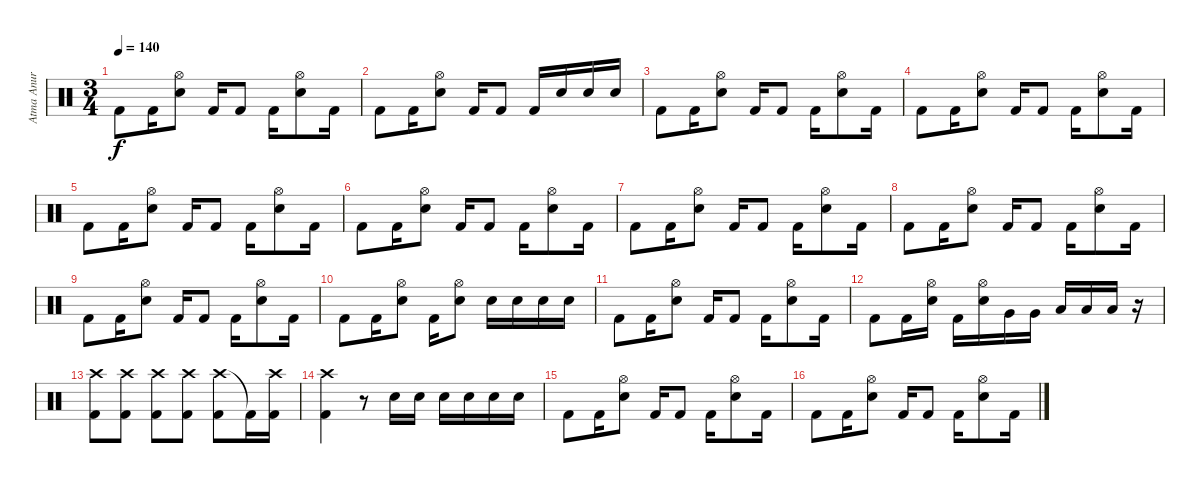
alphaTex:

\track ("Atma Anur" "Atma Anur") {instrument percussion}
\staff {score}
\articulation defaults
\ts (3 4)
\tempo 140
\clef neutral
\ks c "Kick (hit) 2".8{dy f} "Kick (hit) 2".16
("Hi-Hat (open)" "Snare (hit) 2").8 "Kick (hit) 2".16 "Kick (hit) 2".8 "Kick (hit) 2".16 ("Hi-Hat (open)" "Snare (hit) 2").8 "Kick (hit) 2".16 |
"Kick (hit) 2".8 "Kick (hit) 2".16 ("Hi-Hat (open)" "Snare (hit) 2").8 "Kick (hit) 2".16 "Kick (hit) 2".8 "Kick (hit) 2".16 "Snare (hit) 2".16 "Snare (hit) 2".16 "Snare (hit) 2".16 |
"Kick (hit) 2".8 "Kick (hit) 2".16 ("Hi-Hat (open)" "Snare (hit) 2").8 "Kick (hit) 2".16 "Kick (hit) 2".8 "Kick (hit) 2".16 ("Hi-Hat (open)" "Snare (hit) 2").8 "Kick (hit) 2".16 |
"Kick (hit) 2".8 "Kick (hit) 2".16 ("Hi-Hat (open)" "Snare (hit) 2").8 "Kick (hit) 2".16 "Kick (hit) 2".8 "Kick (hit) 2".16 ("Hi-Hat (open)" "Snare (hit) 2").8 "Kick (hit) 2".16 |
"Kick (hit) 2".8 "Kick (hit) 2".16 ("Hi-Hat (open)" "Snare (hit) 2").8 "Kick (hit) 2".16 "Kick (hit) 2".8 "Kick (hit) 2".16 ("Hi-Hat (open)" "Snare (hit) 2").8 "Kick (hit) 2".16 |
"Kick (hit) 2".8 "Kick (hit) 2".16 ("Hi-Hat (open)" "Snare (hit) 2").8 "Kick (hit) 2".16 "Kick (hit) 2".8 "Kick (hit) 2".16 ("Hi-Hat (open)" "Snare (hit) 2").8 "Kick (hit) 2".16 |
"Kick (hit) 2".8 "Kick (hit) 2".16 ("Hi-Hat (open)" "Snare (hit) 2").8 "Kick (hit) 2".16 "Kick (hit) 2".8 "Kick (hit) 2".16 ("Hi-Hat (open)" "Snare (hit) 2").8 "Kick (hit) 2".16 |
"Kick (hit) 2".8 "Kick (hit) 2".16 ("Hi-Hat (open)" "Snare (hit) 2").8 "Kick (hit) 2".16 "Kick (hit) 2".8 "Kick (hit) 2".16 ("Hi-Hat (open)" "Snare (hit) 2").8 "Kick (hit) 2".16 |
"Kick (hit) 2".8 "Kick (hit) 2".16 ("Hi-Hat (open)" "Snare (hit) 2").8 "Kick (hit) 2".16 "Kick (hit) 2".8 "Kick (hit) 2".16 ("Hi-Hat (open)" "Snare (hit) 2").8 "Kick (hit) 2".16 |
"Kick (hit) 2".8 "Kick (hit) 2".16 ("Hi-Hat (open)" "Snare (hit) 2").8 "Kick (hit) 2".16 ("Hi-Hat (open)" "Snare (hit) 2").8 "Snare (hit) 2".16 "Snare (hit) 2".16 "Snare (hit) 2".16 "Snare (hit) 2".16 |
"Kick (hit) 2".8 "Kick (hit) 2".16 ("Hi-Hat (open)" "Snare (hit) 2").8 "Kick (hit) 2".16 "Kick (hit) 2".8 "Kick (hit) 2".16 ("Hi-Hat (open)" "Snare (hit) 2").8 "Kick (hit) 2".16 |
"Kick (hit) 2".8 "Kick (hit) 2".16 ("Hi-Hat (open)" "Snare (hit) 2").16 "Kick (hit) 2".16 ("Hi-Hat (open)" "Snare (hit) 2").16 "Very Low Tom (hit)".16 "Very Low Tom (hit)".16 "Low Tom (hit)".16 "Low Tom (hit)".16 "Low Tom (hit)".16 r.16 |
("Crash high (hit)" "Kick (hit) 2").8 ("Crash high (hit)" "Kick (hit) 2").8 ("Crash high (hit)" "Kick (hit) 2").8 ("Crash high (hit)" "Kick (hit) 2").8 ("Crash high (hit)" "Kick (hit) 2").8 "Kick (hit) 2"{t}.16 ("Crash high (hit)" "Kick (hit) 2").16 |
("Crash high (hit)" "Kick (hit) 2").4 r.8 "Snare (hit) 2".16 "Snare (hit) 2".16 "Snare (hit) 2".16 "Snare (hit) 2".16 "Snare (hit) 2".16 "Snare (hit) 2".16 |
"Kick (hit) 2".8 "Kick (hit) 2".16 ("Hi-Hat (open)" "Snare (hit) 2").8 "Kick (hit) 2".16 "Kick (hit) 2".8 "Kick (hit) 2".16 ("Hi-Hat (open)" "Snare (hit) 2").8 "Kick (hit) 2".16 |
"Kick (hit) 2".8 "Kick (hit) 2".16 ("Hi-Hat (open)" "Snare (hit) 2").8 "Kick (hit) 2".16 "Kick (hit) 2".8 "Kick (hit) 2".16 ("Hi-Hat (open)" "Snare (hit) 2").8 "Kick (hit) 2".16
